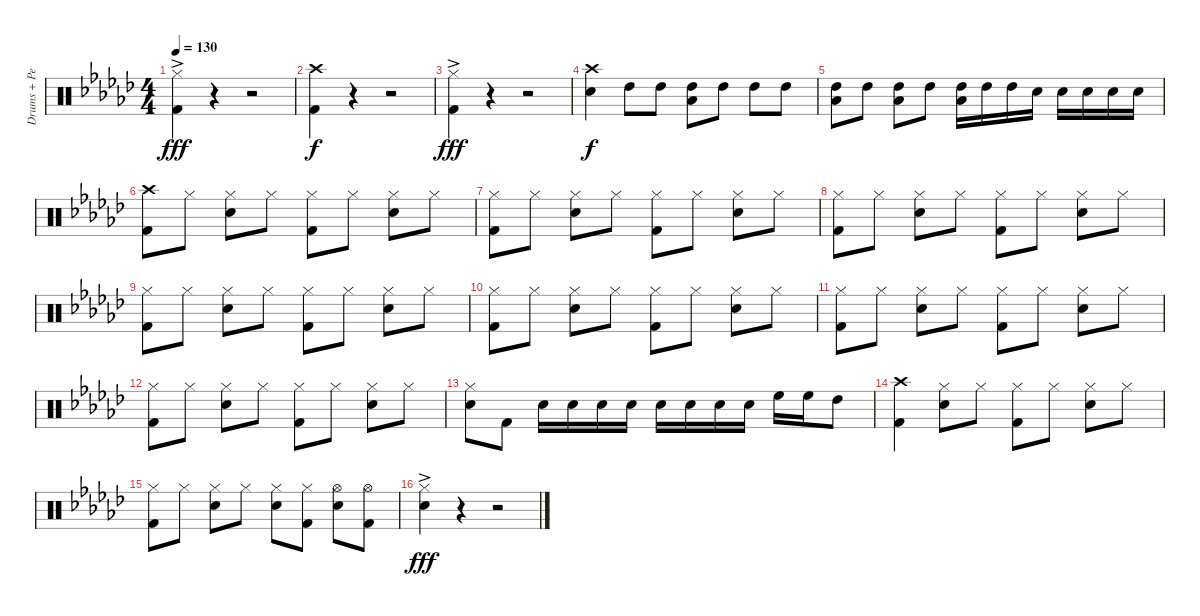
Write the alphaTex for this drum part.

\track ("Drums + Percussions" "Drums + Pe") {instrument percussion}
\staff {score}
\articulation defaults
\ts (4 4)
\tempo 130
\clef neutral
\ks gb
("Hi-Hat (closed)"{ac} "Kick (hit) 2"{ac}).4{dy fff} r.4 r.2 |
("Crash high (hit)" "Kick (hit) 2").4{dy f} r.4 r.2 |
("Hi-Hat (closed)"{ac} "Kick (hit) 2"{ac}).4{dy fff} r.4 r.2 |
("Crash high (hit)" "Electric Snare (hit)").4{dy f} "High Tom (hit)".8 "High Tom (hit)".8 ("High Tom (hit)" "Low Floor Tom (hit)").8 "High Tom (hit)".8 "High Tom (hit)".8 "High Tom (hit)".8 |
("High Tom (hit)" "Low Floor Tom (hit)").8 "High Tom (hit)".8 ("High Tom (hit)" "Low Floor Tom (hit)").8 "High Tom (hit)".8 ("High Tom (hit)" "Low Floor Tom (hit)").16 "High Tom (hit)".16 "High Tom (hit)".16 "Electric Snare (hit)".16 "Electric Snare (hit)".16 "Electric Snare (hit)".16 "Electric Snare (hit)".16 "Electric Snare (hit)".16 |
("Crash high (hit)" "Kick (hit) 2").8 "Hi-Hat (closed)".8 ("Hi-Hat (closed)" "Electric Snare (hit)").8 "Hi-Hat (closed)".8 ("Hi-Hat (closed)" "Kick (hit) 2").8 "Hi-Hat (closed)".8 ("Hi-Hat (closed)" "Electric Snare (hit)").8 "Hi-Hat (closed)".8 |
("Hi-Hat (closed)" "Kick (hit) 2").8 "Hi-Hat (closed)".8 ("Hi-Hat (closed)" "Electric Snare (hit)").8 "Hi-Hat (closed)".8 ("Hi-Hat (closed)" "Kick (hit) 2").8 "Hi-Hat (closed)".8 ("Hi-Hat (closed)" "Electric Snare (hit)").8 "Hi-Hat (closed)".8 |
("Hi-Hat (closed)" "Kick (hit) 2").8 "Hi-Hat (closed)".8 ("Hi-Hat (closed)" "Electric Snare (hit)").8 "Hi-Hat (closed)".8 ("Hi-Hat (closed)" "Kick (hit) 2").8 "Hi-Hat (closed)".8 ("Hi-Hat (closed)" "Electric Snare (hit)").8 "Hi-Hat (closed)".8 |
("Hi-Hat (closed)" "Kick (hit) 2").8 "Hi-Hat (closed)".8 ("Hi-Hat (closed)" "Electric Snare (hit)").8 "Hi-Hat (closed)".8 ("Hi-Hat (closed)" "Kick (hit) 2").8 "Hi-Hat (closed)".8 ("Hi-Hat (closed)" "Electric Snare (hit)").8 "Hi-Hat (closed)".8 |
("Hi-Hat (closed)" "Kick (hit) 2").8 "Hi-Hat (closed)".8 ("Hi-Hat (closed)" "Electric Snare (hit)").8 "Hi-Hat (closed)".8 ("Hi-Hat (closed)" "Kick (hit) 2").8 "Hi-Hat (closed)".8 ("Hi-Hat (closed)" "Electric Snare (hit)").8 "Hi-Hat (closed)".8 |
("Hi-Hat (closed)" "Kick (hit) 2").8 "Hi-Hat (closed)".8 ("Hi-Hat (closed)" "Electric Snare (hit)").8 "Hi-Hat (closed)".8 ("Hi-Hat (closed)" "Kick (hit) 2").8 "Hi-Hat (closed)".8 ("Hi-Hat (closed)" "Electric Snare (hit)").8 "Hi-Hat (closed)".8 |
("Hi-Hat (closed)" "Kick (hit) 2").8 "Hi-Hat (closed)".8 ("Hi-Hat (closed)" "Electric Snare (hit)").8 "Hi-Hat (closed)".8 ("Hi-Hat (closed)" "Kick (hit) 2").8 "Hi-Hat (closed)".8 ("Hi-Hat (closed)" "Electric Snare (hit)").8 "Hi-Hat (closed)".8 |
("Hi-Hat (closed)" "Electric Snare (hit)").8 "Kick (hit) 2".8 "Electric Snare (hit)".16 "Electric Snare (hit)".16 "Electric Snare (hit)".16 "Electric Snare (hit)".16 "Electric Snare (hit)".16 "Electric Snare (hit)".16 "Electric Snare (hit)".16 "Electric Snare (hit)".16 "High Floor Tom (hit)".16 "High Floor Tom (hit)".16 "High Tom (hit)".8 |
("Crash high (hit)" "Kick (hit) 2").4 ("Hi-Hat (closed)" "Electric Snare (hit)").8 "Hi-Hat (closed)".8 ("Hi-Hat (closed)" "Kick (hit) 2").8 "Hi-Hat (closed)".8 ("Hi-Hat (closed)" "Electric Snare (hit)").8 "Hi-Hat (closed)".8 |
("Hi-Hat (closed)" "Kick (hit) 2").8 "Hi-Hat (closed)".8 ("Hi-Hat (closed)" "Electric Snare (hit)").8 "Hi-Hat (closed)".8 ("Hi-Hat (closed)" "Electric Snare (hit)").8 ("Hi-Hat (closed)" "Kick (hit) 2").8 ("Hi-Hat (open)" "Electric Snare (hit)").8 ("Hi-Hat (open)" "Kick (hit) 2").8 |
("Hi-Hat (closed)"{ac} "Electric Snare (hit)"{ac}).4{dy fff} r.4 r.2
